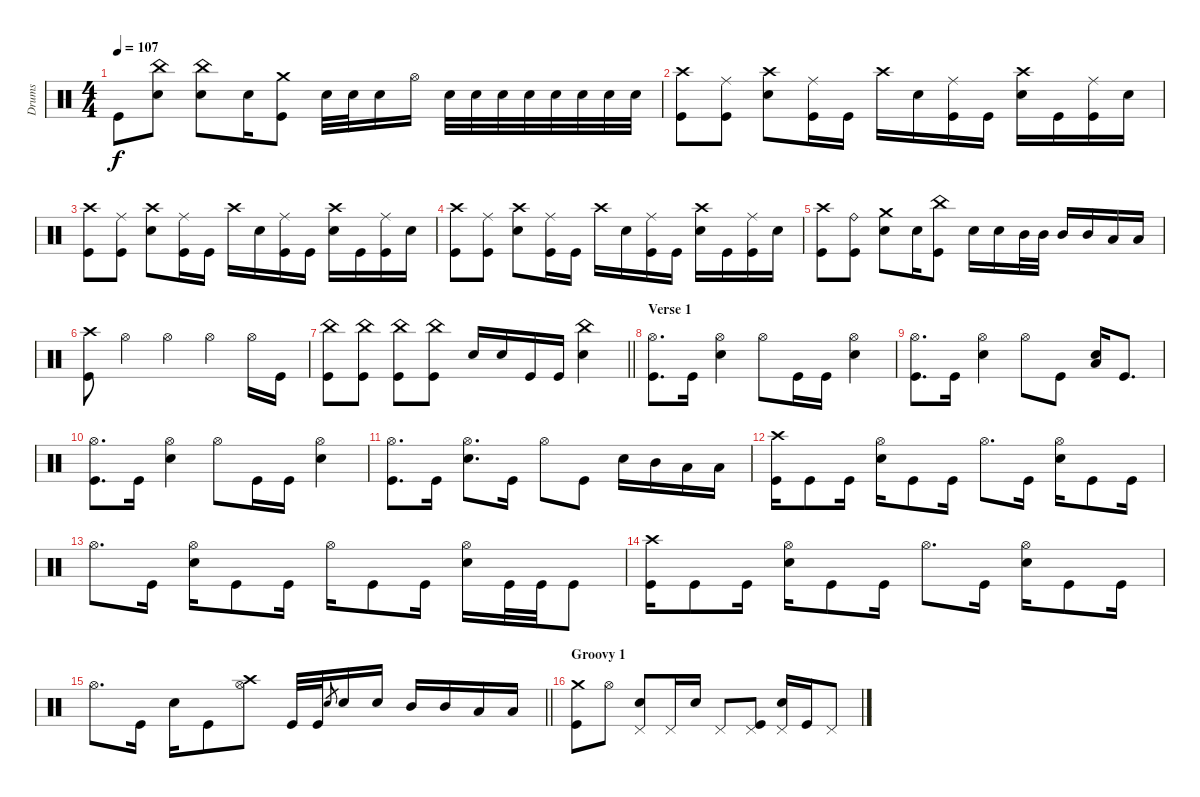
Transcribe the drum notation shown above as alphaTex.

\track ("Drums" "Drums") {instrument percussion}
\staff {score}
\articulation defaults
\ts (4 4)
\tempo 107
\clef neutral
\ks c "Kick (hit)".8{dy f}
("China (hit)" "Snare (hit) 2").8 ("China (hit)" "Snare (hit) 2").8 "Snare (hit) 2".16 ("Crash medium (hit)" "Kick (hit)").8 "Snare (hit) 2".32 "Snare (hit) 2".32 "Snare (hit) 2".16 "Hi-Hat (open)".16 "Snare (hit) 2".32 "Snare (hit) 2".32 "Snare (hit) 2".32 "Snare (hit) 2".32 "Snare (hit) 2".32 "Snare (hit) 2".32 "Snare (hit) 2".32 "Snare (hit) 2".32 |
("Crash high (hit)" "Kick (hit)").8 ("Ride (middle)" "Kick (hit)").8 ("Crash high (hit)" "Snare (hit) 2").8 ("Ride (middle)" "Kick (hit)").16 "Kick (hit)".16 "Crash high (hit)".16 "Snare (hit) 2".16 ("Ride (middle)" "Kick (hit)").16 "Kick (hit)".16 ("Crash high (hit)" "Snare (hit) 2").16 "Kick (hit)".16 ("Ride (middle)" "Kick (hit)").16 "Snare (hit) 2".16 |
("Crash high (hit)" "Kick (hit)").8 ("Ride (middle)" "Kick (hit)").8 ("Crash high (hit)" "Snare (hit) 2").8 ("Ride (middle)" "Kick (hit)").16 "Kick (hit)".16 "Crash high (hit)".16 "Snare (hit) 2".16 ("Ride (middle)" "Kick (hit)").16 "Kick (hit)".16 ("Crash high (hit)" "Snare (hit) 2").16 "Kick (hit)".16 ("Ride (middle)" "Kick (hit)").16 "Snare (hit) 2".16 |
("Crash high (hit)" "Kick (hit)").8 ("Ride (middle)" "Kick (hit)").8 ("Crash high (hit)" "Snare (hit) 2").8 ("Ride (middle)" "Kick (hit)").16 "Kick (hit)".16 "Crash high (hit)".16 "Snare (hit) 2".16 ("Ride (middle)" "Kick (hit)").16 "Kick (hit)".16 ("Crash high (hit)" "Snare (hit) 2").16 "Kick (hit)".16 ("Ride (middle)" "Kick (hit)").16 "Snare (hit) 2".16 |
("Crash high (hit)" "Kick (hit)").8 ("Ride (bell)" "Kick (hit)").8 ("Crash medium (hit)" "Snare (hit) 2").8 "Snare (hit) 2".16 ("China (hit)" "Kick (hit)").8 "Snare (hit) 2".16 "Snare (hit) 2".16 "Mid Tom (hit)".32 "Mid Tom (hit)".32 "Mid Tom (hit)".16 "Mid Tom (hit)".16 "Low Tom (hit)".16 "Low Tom (hit)".16 |
("Crash high (hit)" "Kick (hit)").8 "Hi-Hat (open)".4 "Hi-Hat (open)".4 "Hi-Hat (open)".4 "Hi-Hat (open)".16 "Kick (hit)".16 |
\barLineRight lightlight
("China (hit)" "Kick (hit)").8 ("China (hit)" "Kick (hit)").8 ("China (hit)" "Kick (hit)").8 ("China (hit)" "Kick (hit)").8 "Snare (hit) 2".16 "Snare (hit) 2".16 "Kick (hit)".16 "Kick (hit)".16 ("China (hit)" "Snare (hit) 2").4 |
\section ("" "Verse 1")
("Hi-Hat (open)" "Kick (hit)").8{d} "Kick (hit)".16 ("Hi-Hat (open)" "Snare (hit) 2").4 "Hi-Hat (open)".8 "Kick (hit)".16 "Kick (hit)".16 ("Hi-Hat (open)" "Snare (hit) 2").4 |
("Hi-Hat (open)" "Kick (hit)").8{d} "Kick (hit)".16 ("Hi-Hat (open)" "Snare (hit) 2").4 "Hi-Hat (open)".8 "Kick (hit)".8 ("Low Tom (hit)" "Snare (hit) 2").16 "Kick (hit)".8{d} |
("Hi-Hat (open)" "Kick (hit)").8{d} "Kick (hit)".16 ("Hi-Hat (open)" "Snare (hit) 2").4 "Hi-Hat (open)".8 "Kick (hit)".16 "Kick (hit)".16 ("Hi-Hat (open)" "Snare (hit) 2").4 |
("Hi-Hat (open)" "Kick (hit)").8{d} "Kick (hit)".16 ("Hi-Hat (open)" "Snare (hit) 2").8{d} "Kick (hit)".16 "Hi-Hat (open)".8 "Kick (hit)".8 "Snare (hit) 2".16 "Mid Tom (hit)".16 "Low Tom (hit)".16 "Low Tom (hit)".16 |
("Crash high (hit)" "Kick (hit)").16 "Kick (hit)".8 "Kick (hit)".16 ("Hi-Hat (open)" "Snare (hit) 2").16 "Kick (hit)".8 "Kick (hit)".16 "Hi-Hat (open)".8{d} "Kick (hit)".16 ("Hi-Hat (open)" "Snare (hit) 2").16 "Kick (hit)".8 "Kick (hit)".16 |
"Hi-Hat (open)".8{d} "Kick (hit)".16 ("Hi-Hat (open)" "Snare (hit) 2").16 "Kick (hit)".8 "Kick (hit)".16 "Hi-Hat (open)".16 "Kick (hit)".8 "Kick (hit)".16 ("Hi-Hat (open)" "Snare (hit) 2").16 "Kick (hit)".32 "Kick (hit)".32 "Kick (hit)".8 |
("Crash high (hit)" "Kick (hit)").16 "Kick (hit)".8 "Kick (hit)".16 ("Hi-Hat (open)" "Snare (hit) 2").16 "Kick (hit)".8 "Kick (hit)".16 "Hi-Hat (open)".8{d} "Kick (hit)".16 ("Hi-Hat (open)" "Snare (hit) 2").16 "Kick (hit)".8 "Kick (hit)".16 |
\barLineRight lightlight "Hi-Hat (open)".8{d} "Kick (hit)".16 "Snare (hit) 2".16 "Kick (hit)".8
("Crash high (hit)" "Hi-Hat (open)").8 "Kick (hit)".32 "Kick (hit)".32 "Snare (hit) 2".8{gr} "Snare (hit) 2".16 "Snare (hit) 2".16 "Mid Tom (hit)".16 "Mid Tom (hit)".16 "Low Tom (hit)".16 "Low Tom (hit)".16 |
\section ("" "Groovy 1")
("Crash medium (hit)" "Kick (hit)").8 "Hi-Hat (open)".8 ("Pedal Hi-Hat (hit)" "Snare (hit) 2").8 "Pedal Hi-Hat (hit)".16 "Snare (hit) 2".16 "Pedal Hi-Hat (hit)".8 ("Pedal Hi-Hat (hit)" "Kick (hit)").8 ("Pedal Hi-Hat (hit)" "Snare (hit) 2").16 "Kick (hit)".16 "Pedal Hi-Hat (hit)".8
